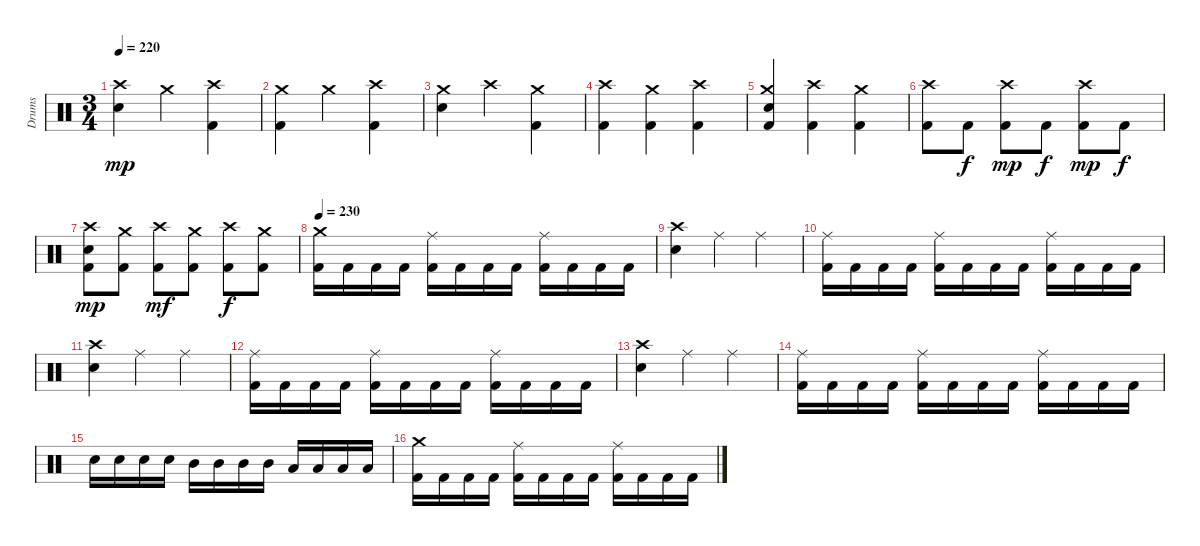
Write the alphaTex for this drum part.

\track ("Drums" "Drums") {instrument percussion}
\staff {score}
\articulation defaults
\ts (3 4)
\tempo 220
\clef neutral
\ks c
("Crash high (hit)" "Electric Snare (hit)").4{dy mp} "Crash medium (hit)".4 ("Crash high (hit)" "Kick (hit) 2").4 |
("Crash medium (hit)" "Kick (hit) 2").4 "Crash medium (hit)".4 ("Crash high (hit)" "Kick (hit) 2").4 |
("Crash medium (hit)" "Electric Snare (hit)").4 "Crash high (hit)".4 ("Crash medium (hit)" "Kick (hit) 2").4 |
("Crash high (hit)" "Kick (hit) 2").4 ("Crash medium (hit)" "Kick (hit) 2").4 ("Crash high (hit)" "Kick (hit) 2").4 |
("Crash medium (hit)" "Electric Snare (hit)" "Kick (hit) 2").4 ("Crash high (hit)" "Kick (hit) 2").4 ("Crash medium (hit)" "Kick (hit) 2").4 |
("Crash high (hit)" "Kick (hit) 2").8 "Kick (hit) 2".8{dy f} ("Crash high (hit)" "Kick (hit) 2").8{dy mp} "Kick (hit) 2".8{dy f} ("Crash high (hit)" "Kick (hit) 2").8{dy mp} "Kick (hit) 2".8{dy f} |
("Crash high (hit)" "Electric Snare (hit)" "Kick (hit) 2").8{dy mp} ("Crash medium (hit)" "Kick (hit) 2").8 ("Crash high (hit)" "Kick (hit) 2").8{dy mf} ("Crash medium (hit)" "Kick (hit) 2").8 ("Crash high (hit)" "Kick (hit) 2").8{dy f} ("Crash medium (hit)" "Kick (hit) 2").8 |
\tempo 230
("Crash medium (hit)" "Kick (hit) 2").16 "Kick (hit) 2".16 "Kick (hit) 2".16 "Kick (hit) 2".16 ("Ride (middle)" "Kick (hit) 2").16 "Kick (hit) 2".16 "Kick (hit) 2".16 "Kick (hit) 2".16 ("Ride (middle)" "Kick (hit) 2").16 "Kick (hit) 2".16 "Kick (hit) 2".16 "Kick (hit) 2".16 |
("Crash high (hit)" "Electric Snare (hit)").4 "Ride (middle)".4 "Ride (middle)".4 |
("Ride (middle)" "Kick (hit) 2").16 "Kick (hit) 2".16 "Kick (hit) 2".16 "Kick (hit) 2".16 ("Ride (middle)" "Kick (hit) 2").16 "Kick (hit) 2".16 "Kick (hit) 2".16 "Kick (hit) 2".16 ("Ride (middle)" "Kick (hit) 2").16 "Kick (hit) 2".16 "Kick (hit) 2".16 "Kick (hit) 2".16 |
("Crash high (hit)" "Electric Snare (hit)").4 "Ride (middle)".4 "Ride (middle)".4 |
("Ride (middle)" "Kick (hit) 2").16 "Kick (hit) 2".16 "Kick (hit) 2".16 "Kick (hit) 2".16 ("Ride (middle)" "Kick (hit) 2").16 "Kick (hit) 2".16 "Kick (hit) 2".16 "Kick (hit) 2".16 ("Ride (middle)" "Kick (hit) 2").16 "Kick (hit) 2".16 "Kick (hit) 2".16 "Kick (hit) 2".16 |
("Crash high (hit)" "Electric Snare (hit)").4 "Ride (middle)".4 "Ride (middle)".4 |
("Ride (middle)" "Kick (hit) 2").16 "Kick (hit) 2".16 "Kick (hit) 2".16 "Kick (hit) 2".16 ("Ride (middle)" "Kick (hit) 2").16 "Kick (hit) 2".16 "Kick (hit) 2".16 "Kick (hit) 2".16 ("Ride (middle)" "Kick (hit) 2").16 "Kick (hit) 2".16 "Kick (hit) 2".16 "Kick (hit) 2".16 |
"Electric Snare (hit)".16 "Electric Snare (hit)".16 "Electric Snare (hit)".16 "Electric Snare (hit)".16 "Mid Tom (hit)".16 "Mid Tom (hit)".16 "Mid Tom (hit)".16 "Mid Tom (hit)".16 "Low Tom (hit)".16 "Low Tom (hit)".16 "Low Tom (hit)".16 "Low Tom (hit)".16 |
("Crash medium (hit)" "Kick (hit) 2").16 "Kick (hit) 2".16 "Kick (hit) 2".16 "Kick (hit) 2".16 ("Ride (middle)" "Kick (hit) 2").16 "Kick (hit) 2".16 "Kick (hit) 2".16 "Kick (hit) 2".16 ("Ride (middle)" "Kick (hit) 2").16 "Kick (hit) 2".16 "Kick (hit) 2".16 "Kick (hit) 2".16
